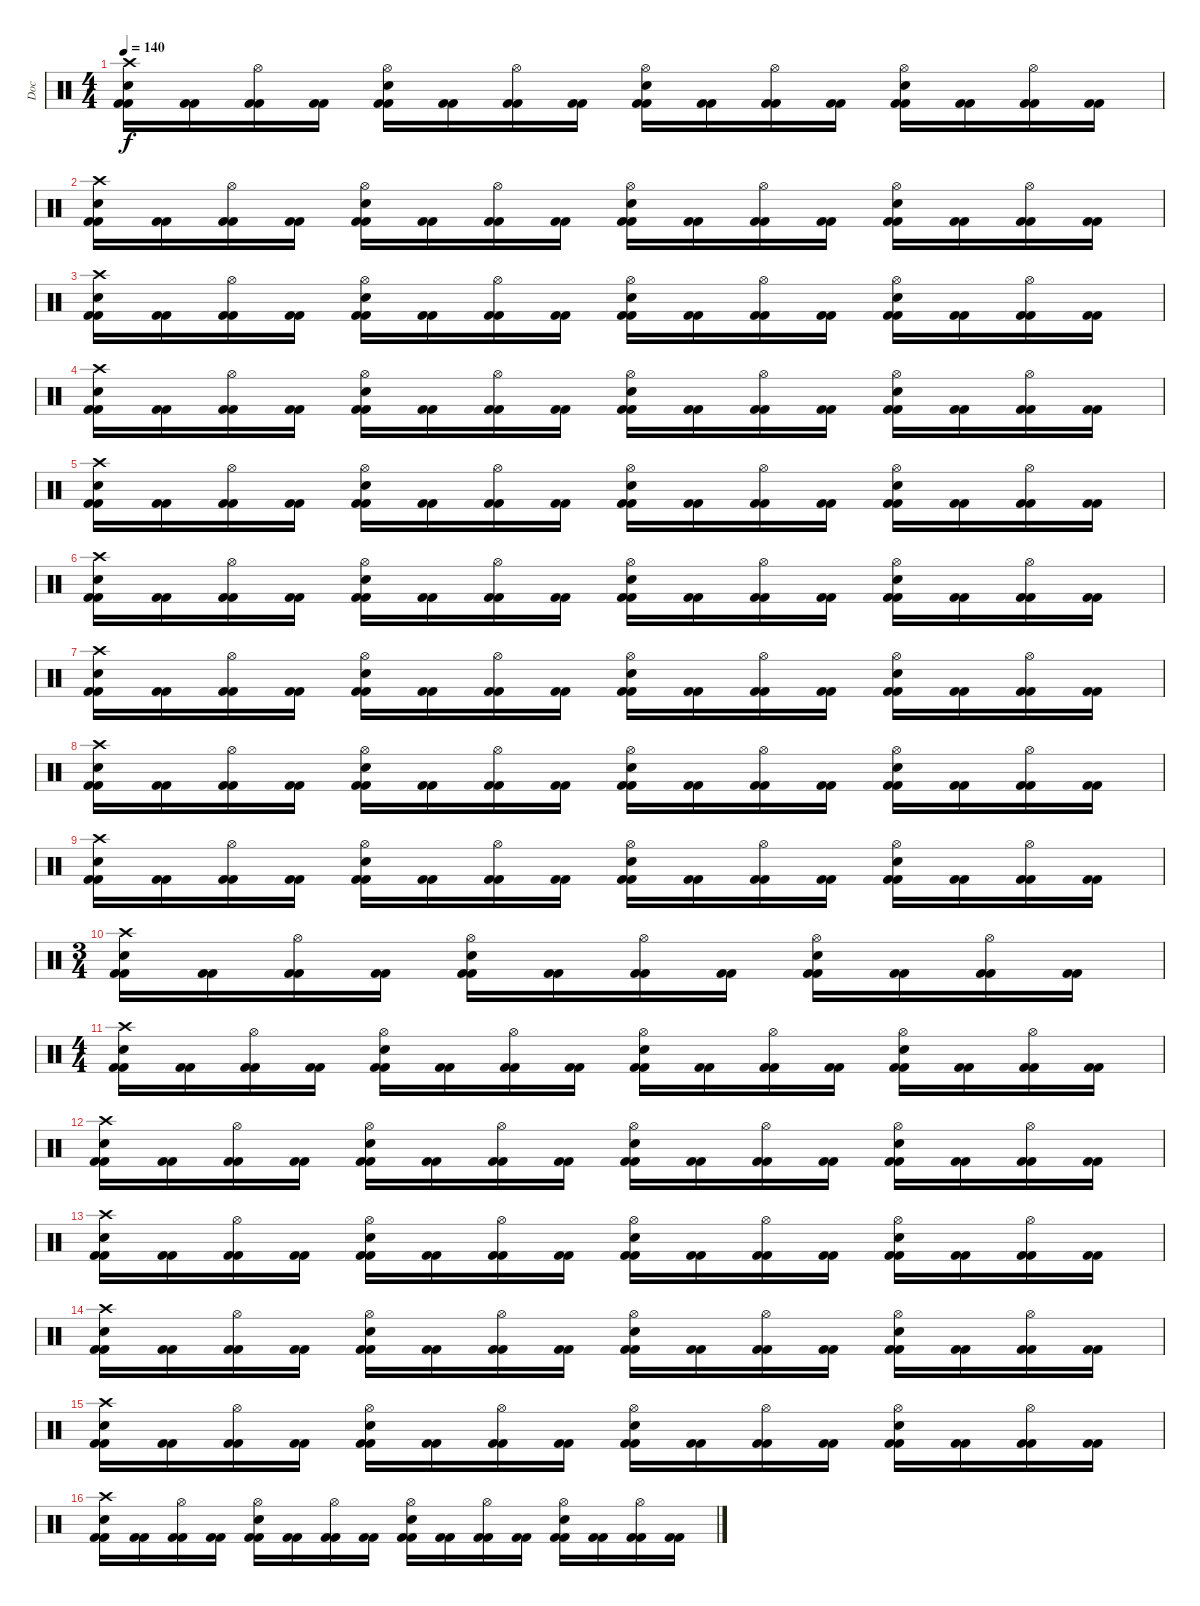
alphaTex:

\track ("Doc" "Doc") {instrument percussion}
\staff {score}
\articulation defaults
\ts (4 4)
\tempo 140
\clef neutral
\ks c
("Kick (hit) 2" "Crash high (hit)" "Electric Snare (hit)" "Kick (hit) 2").16{dy f} ("Kick (hit) 2" "Kick (hit) 2").16 ("Kick (hit) 2" "Hi-Hat (open)" "Kick (hit) 2").16 ("Kick (hit) 2" "Kick (hit) 2").16 ("Kick (hit) 2" "Hi-Hat (open)" "Electric Snare (hit)" "Kick (hit) 2").16 ("Kick (hit) 2" "Kick (hit) 2").16 ("Kick (hit) 2" "Hi-Hat (open)" "Kick (hit) 2").16 ("Kick (hit) 2" "Kick (hit) 2").16 ("Kick (hit) 2" "Hi-Hat (open)" "Electric Snare (hit)" "Kick (hit) 2").16 ("Kick (hit) 2" "Kick (hit) 2").16 ("Kick (hit) 2" "Hi-Hat (open)" "Kick (hit) 2").16 ("Kick (hit) 2" "Kick (hit) 2").16 ("Kick (hit) 2" "Hi-Hat (open)" "Electric Snare (hit)" "Kick (hit) 2").16 ("Kick (hit) 2" "Kick (hit) 2").16 ("Kick (hit) 2" "Hi-Hat (open)" "Kick (hit) 2").16 ("Kick (hit) 2" "Kick (hit) 2").16 |
("Kick (hit) 2" "Crash high (hit)" "Electric Snare (hit)" "Kick (hit) 2").16 ("Kick (hit) 2" "Kick (hit) 2").16 ("Kick (hit) 2" "Hi-Hat (open)" "Kick (hit) 2").16 ("Kick (hit) 2" "Kick (hit) 2").16 ("Kick (hit) 2" "Hi-Hat (open)" "Electric Snare (hit)" "Kick (hit) 2").16 ("Kick (hit) 2" "Kick (hit) 2").16 ("Kick (hit) 2" "Hi-Hat (open)" "Kick (hit) 2").16 ("Kick (hit) 2" "Kick (hit) 2").16 ("Kick (hit) 2" "Hi-Hat (open)" "Electric Snare (hit)" "Kick (hit) 2").16 ("Kick (hit) 2" "Kick (hit) 2").16 ("Kick (hit) 2" "Hi-Hat (open)" "Kick (hit) 2").16 ("Kick (hit) 2" "Kick (hit) 2").16 ("Kick (hit) 2" "Hi-Hat (open)" "Electric Snare (hit)" "Kick (hit) 2").16 ("Kick (hit) 2" "Kick (hit) 2").16 ("Kick (hit) 2" "Hi-Hat (open)" "Kick (hit) 2").16 ("Kick (hit) 2" "Kick (hit) 2").16 |
("Kick (hit) 2" "Crash high (hit)" "Electric Snare (hit)" "Kick (hit) 2").16 ("Kick (hit) 2" "Kick (hit) 2").16 ("Kick (hit) 2" "Hi-Hat (open)" "Kick (hit) 2").16 ("Kick (hit) 2" "Kick (hit) 2").16 ("Kick (hit) 2" "Hi-Hat (open)" "Electric Snare (hit)" "Kick (hit) 2").16 ("Kick (hit) 2" "Kick (hit) 2").16 ("Kick (hit) 2" "Hi-Hat (open)" "Kick (hit) 2").16 ("Kick (hit) 2" "Kick (hit) 2").16 ("Kick (hit) 2" "Hi-Hat (open)" "Electric Snare (hit)" "Kick (hit) 2").16 ("Kick (hit) 2" "Kick (hit) 2").16 ("Kick (hit) 2" "Hi-Hat (open)" "Kick (hit) 2").16 ("Kick (hit) 2" "Kick (hit) 2").16 ("Kick (hit) 2" "Hi-Hat (open)" "Electric Snare (hit)" "Kick (hit) 2").16 ("Kick (hit) 2" "Kick (hit) 2").16 ("Kick (hit) 2" "Hi-Hat (open)" "Kick (hit) 2").16 ("Kick (hit) 2" "Kick (hit) 2").16 |
("Kick (hit) 2" "Crash high (hit)" "Electric Snare (hit)" "Kick (hit) 2").16 ("Kick (hit) 2" "Kick (hit) 2").16 ("Kick (hit) 2" "Hi-Hat (open)" "Kick (hit) 2").16 ("Kick (hit) 2" "Kick (hit) 2").16 ("Kick (hit) 2" "Hi-Hat (open)" "Electric Snare (hit)" "Kick (hit) 2").16 ("Kick (hit) 2" "Kick (hit) 2").16 ("Kick (hit) 2" "Hi-Hat (open)" "Kick (hit) 2").16 ("Kick (hit) 2" "Kick (hit) 2").16 ("Kick (hit) 2" "Hi-Hat (open)" "Electric Snare (hit)" "Kick (hit) 2").16 ("Kick (hit) 2" "Kick (hit) 2").16 ("Kick (hit) 2" "Hi-Hat (open)" "Kick (hit) 2").16 ("Kick (hit) 2" "Kick (hit) 2").16 ("Kick (hit) 2" "Hi-Hat (open)" "Electric Snare (hit)" "Kick (hit) 2").16 ("Kick (hit) 2" "Kick (hit) 2").16 ("Kick (hit) 2" "Hi-Hat (open)" "Kick (hit) 2").16 ("Kick (hit) 2" "Kick (hit) 2").16 |
("Kick (hit) 2" "Crash high (hit)" "Electric Snare (hit)" "Kick (hit) 2").16 ("Kick (hit) 2" "Kick (hit) 2").16 ("Kick (hit) 2" "Hi-Hat (open)" "Kick (hit) 2").16 ("Kick (hit) 2" "Kick (hit) 2").16 ("Kick (hit) 2" "Hi-Hat (open)" "Electric Snare (hit)" "Kick (hit) 2").16 ("Kick (hit) 2" "Kick (hit) 2").16 ("Kick (hit) 2" "Hi-Hat (open)" "Kick (hit) 2").16 ("Kick (hit) 2" "Kick (hit) 2").16 ("Kick (hit) 2" "Hi-Hat (open)" "Electric Snare (hit)" "Kick (hit) 2").16 ("Kick (hit) 2" "Kick (hit) 2").16 ("Kick (hit) 2" "Hi-Hat (open)" "Kick (hit) 2").16 ("Kick (hit) 2" "Kick (hit) 2").16 ("Kick (hit) 2" "Hi-Hat (open)" "Electric Snare (hit)" "Kick (hit) 2").16 ("Kick (hit) 2" "Kick (hit) 2").16 ("Kick (hit) 2" "Hi-Hat (open)" "Kick (hit) 2").16 ("Kick (hit) 2" "Kick (hit) 2").16 |
("Kick (hit) 2" "Crash high (hit)" "Electric Snare (hit)" "Kick (hit) 2").16 ("Kick (hit) 2" "Kick (hit) 2").16 ("Kick (hit) 2" "Hi-Hat (open)" "Kick (hit) 2").16 ("Kick (hit) 2" "Kick (hit) 2").16 ("Kick (hit) 2" "Hi-Hat (open)" "Electric Snare (hit)" "Kick (hit) 2").16 ("Kick (hit) 2" "Kick (hit) 2").16 ("Kick (hit) 2" "Hi-Hat (open)" "Kick (hit) 2").16 ("Kick (hit) 2" "Kick (hit) 2").16 ("Kick (hit) 2" "Hi-Hat (open)" "Electric Snare (hit)" "Kick (hit) 2").16 ("Kick (hit) 2" "Kick (hit) 2").16 ("Kick (hit) 2" "Hi-Hat (open)" "Kick (hit) 2").16 ("Kick (hit) 2" "Kick (hit) 2").16 ("Kick (hit) 2" "Hi-Hat (open)" "Electric Snare (hit)" "Kick (hit) 2").16 ("Kick (hit) 2" "Kick (hit) 2").16 ("Kick (hit) 2" "Hi-Hat (open)" "Kick (hit) 2").16 ("Kick (hit) 2" "Kick (hit) 2").16 |
("Kick (hit) 2" "Crash high (hit)" "Electric Snare (hit)" "Kick (hit) 2").16 ("Kick (hit) 2" "Kick (hit) 2").16 ("Kick (hit) 2" "Hi-Hat (open)" "Kick (hit) 2").16 ("Kick (hit) 2" "Kick (hit) 2").16 ("Kick (hit) 2" "Hi-Hat (open)" "Electric Snare (hit)" "Kick (hit) 2").16 ("Kick (hit) 2" "Kick (hit) 2").16 ("Kick (hit) 2" "Hi-Hat (open)" "Kick (hit) 2").16 ("Kick (hit) 2" "Kick (hit) 2").16 ("Kick (hit) 2" "Hi-Hat (open)" "Electric Snare (hit)" "Kick (hit) 2").16 ("Kick (hit) 2" "Kick (hit) 2").16 ("Kick (hit) 2" "Hi-Hat (open)" "Kick (hit) 2").16 ("Kick (hit) 2" "Kick (hit) 2").16 ("Kick (hit) 2" "Hi-Hat (open)" "Electric Snare (hit)" "Kick (hit) 2").16 ("Kick (hit) 2" "Kick (hit) 2").16 ("Kick (hit) 2" "Hi-Hat (open)" "Kick (hit) 2").16 ("Kick (hit) 2" "Kick (hit) 2").16 |
("Kick (hit) 2" "Crash high (hit)" "Electric Snare (hit)" "Kick (hit) 2").16 ("Kick (hit) 2" "Kick (hit) 2").16 ("Kick (hit) 2" "Hi-Hat (open)" "Kick (hit) 2").16 ("Kick (hit) 2" "Kick (hit) 2").16 ("Kick (hit) 2" "Hi-Hat (open)" "Electric Snare (hit)" "Kick (hit) 2").16 ("Kick (hit) 2" "Kick (hit) 2").16 ("Kick (hit) 2" "Hi-Hat (open)" "Kick (hit) 2").16 ("Kick (hit) 2" "Kick (hit) 2").16 ("Kick (hit) 2" "Hi-Hat (open)" "Electric Snare (hit)" "Kick (hit) 2").16 ("Kick (hit) 2" "Kick (hit) 2").16 ("Kick (hit) 2" "Hi-Hat (open)" "Kick (hit) 2").16 ("Kick (hit) 2" "Kick (hit) 2").16 ("Kick (hit) 2" "Hi-Hat (open)" "Electric Snare (hit)" "Kick (hit) 2").16 ("Kick (hit) 2" "Kick (hit) 2").16 ("Kick (hit) 2" "Hi-Hat (open)" "Kick (hit) 2").16 ("Kick (hit) 2" "Kick (hit) 2").16 |
("Kick (hit) 2" "Crash high (hit)" "Electric Snare (hit)" "Kick (hit) 2").16 ("Kick (hit) 2" "Kick (hit) 2").16 ("Kick (hit) 2" "Hi-Hat (open)" "Kick (hit) 2").16 ("Kick (hit) 2" "Kick (hit) 2").16 ("Kick (hit) 2" "Hi-Hat (open)" "Electric Snare (hit)" "Kick (hit) 2").16 ("Kick (hit) 2" "Kick (hit) 2").16 ("Kick (hit) 2" "Hi-Hat (open)" "Kick (hit) 2").16 ("Kick (hit) 2" "Kick (hit) 2").16 ("Kick (hit) 2" "Hi-Hat (open)" "Electric Snare (hit)" "Kick (hit) 2").16 ("Kick (hit) 2" "Kick (hit) 2").16 ("Kick (hit) 2" "Hi-Hat (open)" "Kick (hit) 2").16 ("Kick (hit) 2" "Kick (hit) 2").16 ("Kick (hit) 2" "Hi-Hat (open)" "Electric Snare (hit)" "Kick (hit) 2").16 ("Kick (hit) 2" "Kick (hit) 2").16 ("Kick (hit) 2" "Hi-Hat (open)" "Kick (hit) 2").16 ("Kick (hit) 2" "Kick (hit) 2").16 |
\ts (3 4)
("Kick (hit) 2" "Crash high (hit)" "Electric Snare (hit)" "Kick (hit) 2").16 ("Kick (hit) 2" "Kick (hit) 2").16 ("Kick (hit) 2" "Hi-Hat (open)" "Kick (hit) 2").16 ("Kick (hit) 2" "Kick (hit) 2").16 ("Kick (hit) 2" "Hi-Hat (open)" "Electric Snare (hit)" "Kick (hit) 2").16 ("Kick (hit) 2" "Kick (hit) 2").16 ("Kick (hit) 2" "Hi-Hat (open)" "Kick (hit) 2").16 ("Kick (hit) 2" "Kick (hit) 2").16 ("Kick (hit) 2" "Hi-Hat (open)" "Electric Snare (hit)" "Kick (hit) 2").16 ("Kick (hit) 2" "Kick (hit) 2").16 ("Kick (hit) 2" "Hi-Hat (open)" "Kick (hit) 2").16 ("Kick (hit) 2" "Kick (hit) 2").16 |
\ts (4 4)
("Kick (hit) 2" "Crash high (hit)" "Electric Snare (hit)" "Kick (hit) 2").16 ("Kick (hit) 2" "Kick (hit) 2").16 ("Kick (hit) 2" "Hi-Hat (open)" "Kick (hit) 2").16 ("Kick (hit) 2" "Kick (hit) 2").16 ("Kick (hit) 2" "Hi-Hat (open)" "Electric Snare (hit)" "Kick (hit) 2").16 ("Kick (hit) 2" "Kick (hit) 2").16 ("Kick (hit) 2" "Hi-Hat (open)" "Kick (hit) 2").16 ("Kick (hit) 2" "Kick (hit) 2").16 ("Kick (hit) 2" "Hi-Hat (open)" "Electric Snare (hit)" "Kick (hit) 2").16 ("Kick (hit) 2" "Kick (hit) 2").16 ("Kick (hit) 2" "Hi-Hat (open)" "Kick (hit) 2").16 ("Kick (hit) 2" "Kick (hit) 2").16 ("Kick (hit) 2" "Hi-Hat (open)" "Electric Snare (hit)" "Kick (hit) 2").16 ("Kick (hit) 2" "Kick (hit) 2").16 ("Kick (hit) 2" "Hi-Hat (open)" "Kick (hit) 2").16 ("Kick (hit) 2" "Kick (hit) 2").16 |
("Kick (hit) 2" "Crash high (hit)" "Electric Snare (hit)" "Kick (hit) 2").16 ("Kick (hit) 2" "Kick (hit) 2").16 ("Kick (hit) 2" "Hi-Hat (open)" "Kick (hit) 2").16 ("Kick (hit) 2" "Kick (hit) 2").16 ("Kick (hit) 2" "Hi-Hat (open)" "Electric Snare (hit)" "Kick (hit) 2").16 ("Kick (hit) 2" "Kick (hit) 2").16 ("Kick (hit) 2" "Hi-Hat (open)" "Kick (hit) 2").16 ("Kick (hit) 2" "Kick (hit) 2").16 ("Kick (hit) 2" "Hi-Hat (open)" "Electric Snare (hit)" "Kick (hit) 2").16 ("Kick (hit) 2" "Kick (hit) 2").16 ("Kick (hit) 2" "Hi-Hat (open)" "Kick (hit) 2").16 ("Kick (hit) 2" "Kick (hit) 2").16 ("Kick (hit) 2" "Hi-Hat (open)" "Electric Snare (hit)" "Kick (hit) 2").16 ("Kick (hit) 2" "Kick (hit) 2").16 ("Kick (hit) 2" "Hi-Hat (open)" "Kick (hit) 2").16 ("Kick (hit) 2" "Kick (hit) 2").16 |
("Kick (hit) 2" "Crash high (hit)" "Electric Snare (hit)" "Kick (hit) 2").16 ("Kick (hit) 2" "Kick (hit) 2").16 ("Kick (hit) 2" "Hi-Hat (open)" "Kick (hit) 2").16 ("Kick (hit) 2" "Kick (hit) 2").16 ("Kick (hit) 2" "Hi-Hat (open)" "Electric Snare (hit)" "Kick (hit) 2").16 ("Kick (hit) 2" "Kick (hit) 2").16 ("Kick (hit) 2" "Hi-Hat (open)" "Kick (hit) 2").16 ("Kick (hit) 2" "Kick (hit) 2").16 ("Kick (hit) 2" "Hi-Hat (open)" "Electric Snare (hit)" "Kick (hit) 2").16 ("Kick (hit) 2" "Kick (hit) 2").16 ("Kick (hit) 2" "Hi-Hat (open)" "Kick (hit) 2").16 ("Kick (hit) 2" "Kick (hit) 2").16 ("Kick (hit) 2" "Hi-Hat (open)" "Electric Snare (hit)" "Kick (hit) 2").16 ("Kick (hit) 2" "Kick (hit) 2").16 ("Kick (hit) 2" "Hi-Hat (open)" "Kick (hit) 2").16 ("Kick (hit) 2" "Kick (hit) 2").16 |
("Kick (hit) 2" "Crash high (hit)" "Electric Snare (hit)" "Kick (hit) 2").16 ("Kick (hit) 2" "Kick (hit) 2").16 ("Kick (hit) 2" "Hi-Hat (open)" "Kick (hit) 2").16 ("Kick (hit) 2" "Kick (hit) 2").16 ("Kick (hit) 2" "Hi-Hat (open)" "Electric Snare (hit)" "Kick (hit) 2").16 ("Kick (hit) 2" "Kick (hit) 2").16 ("Kick (hit) 2" "Hi-Hat (open)" "Kick (hit) 2").16 ("Kick (hit) 2" "Kick (hit) 2").16 ("Kick (hit) 2" "Hi-Hat (open)" "Electric Snare (hit)" "Kick (hit) 2").16 ("Kick (hit) 2" "Kick (hit) 2").16 ("Kick (hit) 2" "Hi-Hat (open)" "Kick (hit) 2").16 ("Kick (hit) 2" "Kick (hit) 2").16 ("Kick (hit) 2" "Hi-Hat (open)" "Electric Snare (hit)" "Kick (hit) 2").16 ("Kick (hit) 2" "Kick (hit) 2").16 ("Kick (hit) 2" "Hi-Hat (open)" "Kick (hit) 2").16 ("Kick (hit) 2" "Kick (hit) 2").16 |
("Kick (hit) 2" "Crash high (hit)" "Electric Snare (hit)" "Kick (hit) 2").16 ("Kick (hit) 2" "Kick (hit) 2").16 ("Kick (hit) 2" "Hi-Hat (open)" "Kick (hit) 2").16 ("Kick (hit) 2" "Kick (hit) 2").16 ("Kick (hit) 2" "Hi-Hat (open)" "Electric Snare (hit)" "Kick (hit) 2").16 ("Kick (hit) 2" "Kick (hit) 2").16 ("Kick (hit) 2" "Hi-Hat (open)" "Kick (hit) 2").16 ("Kick (hit) 2" "Kick (hit) 2").16 ("Kick (hit) 2" "Hi-Hat (open)" "Electric Snare (hit)" "Kick (hit) 2").16 ("Kick (hit) 2" "Kick (hit) 2").16 ("Kick (hit) 2" "Hi-Hat (open)" "Kick (hit) 2").16 ("Kick (hit) 2" "Kick (hit) 2").16 ("Kick (hit) 2" "Hi-Hat (open)" "Electric Snare (hit)" "Kick (hit) 2").16 ("Kick (hit) 2" "Kick (hit) 2").16 ("Kick (hit) 2" "Hi-Hat (open)" "Kick (hit) 2").16 ("Kick (hit) 2" "Kick (hit) 2").16 |
("Kick (hit) 2" "Crash high (hit)" "Electric Snare (hit)" "Kick (hit) 2").16 ("Kick (hit) 2" "Kick (hit) 2").16 ("Kick (hit) 2" "Hi-Hat (open)" "Kick (hit) 2").16 ("Kick (hit) 2" "Kick (hit) 2").16 ("Kick (hit) 2" "Hi-Hat (open)" "Electric Snare (hit)" "Kick (hit) 2").16 ("Kick (hit) 2" "Kick (hit) 2").16 ("Kick (hit) 2" "Hi-Hat (open)" "Kick (hit) 2").16 ("Kick (hit) 2" "Kick (hit) 2").16 ("Kick (hit) 2" "Hi-Hat (open)" "Electric Snare (hit)" "Kick (hit) 2").16 ("Kick (hit) 2" "Kick (hit) 2").16 ("Kick (hit) 2" "Hi-Hat (open)" "Kick (hit) 2").16 ("Kick (hit) 2" "Kick (hit) 2").16 ("Kick (hit) 2" "Hi-Hat (open)" "Electric Snare (hit)" "Kick (hit) 2").16 ("Kick (hit) 2" "Kick (hit) 2").16 ("Kick (hit) 2" "Hi-Hat (open)" "Kick (hit) 2").16 ("Kick (hit) 2" "Kick (hit) 2").16
